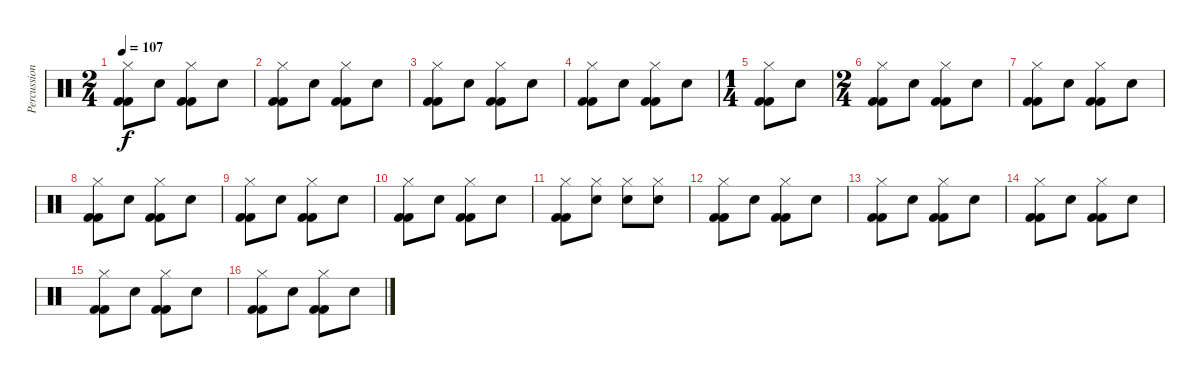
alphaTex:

\track ("Percussioni" "Percussion") {instrument percussion}
\staff {score}
\articulation defaults
\ts (2 4)
\tempo 107
\clef neutral
\ks c
("Hi-Hat (closed)" "Kick (hit) 2" "Kick (hit) 2").8{dy f} "Electric Snare (hit)".8 ("Hi-Hat (closed)" "Kick (hit) 2" "Kick (hit) 2").8 "Electric Snare (hit)".8 |
("Hi-Hat (closed)" "Kick (hit) 2" "Kick (hit) 2").8 "Electric Snare (hit)".8 ("Hi-Hat (closed)" "Kick (hit) 2" "Kick (hit) 2").8 "Electric Snare (hit)".8 |
("Hi-Hat (closed)" "Kick (hit) 2" "Kick (hit) 2").8 "Electric Snare (hit)".8 ("Hi-Hat (closed)" "Kick (hit) 2" "Kick (hit) 2").8 "Electric Snare (hit)".8 |
("Hi-Hat (closed)" "Kick (hit) 2" "Kick (hit) 2").8 "Electric Snare (hit)".8 ("Hi-Hat (closed)" "Kick (hit) 2" "Kick (hit) 2").8 "Electric Snare (hit)".8 |
\ts (1 4)
("Hi-Hat (closed)" "Kick (hit) 2" "Kick (hit) 2").8 "Electric Snare (hit)".8 |
\ts (2 4)
("Hi-Hat (closed)" "Kick (hit) 2" "Kick (hit) 2").8 "Electric Snare (hit)".8 ("Hi-Hat (closed)" "Kick (hit) 2" "Kick (hit) 2").8 "Electric Snare (hit)".8 |
("Hi-Hat (closed)" "Kick (hit) 2" "Kick (hit) 2").8 "Electric Snare (hit)".8 ("Hi-Hat (closed)" "Kick (hit) 2" "Kick (hit) 2").8 "Electric Snare (hit)".8 |
("Hi-Hat (closed)" "Kick (hit) 2" "Kick (hit) 2").8 "Electric Snare (hit)".8 ("Hi-Hat (closed)" "Kick (hit) 2" "Kick (hit) 2").8 "Electric Snare (hit)".8 |
("Hi-Hat (closed)" "Kick (hit) 2" "Kick (hit) 2").8 "Electric Snare (hit)".8 ("Hi-Hat (closed)" "Kick (hit) 2" "Kick (hit) 2").8 "Electric Snare (hit)".8 |
("Hi-Hat (closed)" "Kick (hit) 2" "Kick (hit) 2").8 "Electric Snare (hit)".8 ("Hi-Hat (closed)" "Kick (hit) 2" "Kick (hit) 2").8 "Electric Snare (hit)".8 |
("Hi-Hat (closed)" "Kick (hit) 2" "Kick (hit) 2").8 ("Hi-Hat (closed)" "Electric Snare (hit)").8 ("Hi-Hat (closed)" "Electric Snare (hit)").8 ("Hi-Hat (closed)" "Electric Snare (hit)").8 |
("Hi-Hat (closed)" "Kick (hit) 2" "Kick (hit) 2").8 "Electric Snare (hit)".8 ("Hi-Hat (closed)" "Kick (hit) 2" "Kick (hit) 2").8 "Electric Snare (hit)".8 |
("Hi-Hat (closed)" "Kick (hit) 2" "Kick (hit) 2").8 "Electric Snare (hit)".8 ("Hi-Hat (closed)" "Kick (hit) 2" "Kick (hit) 2").8 "Electric Snare (hit)".8 |
("Hi-Hat (closed)" "Kick (hit) 2" "Kick (hit) 2").8 "Electric Snare (hit)".8 ("Hi-Hat (closed)" "Kick (hit) 2" "Kick (hit) 2").8 "Electric Snare (hit)".8 |
("Hi-Hat (closed)" "Kick (hit) 2" "Kick (hit) 2").8 "Electric Snare (hit)".8 ("Hi-Hat (closed)" "Kick (hit) 2" "Kick (hit) 2").8 "Electric Snare (hit)".8 |
("Hi-Hat (closed)" "Kick (hit) 2" "Kick (hit) 2").8 "Electric Snare (hit)".8 ("Hi-Hat (closed)" "Kick (hit) 2" "Kick (hit) 2").8 "Electric Snare (hit)".8
